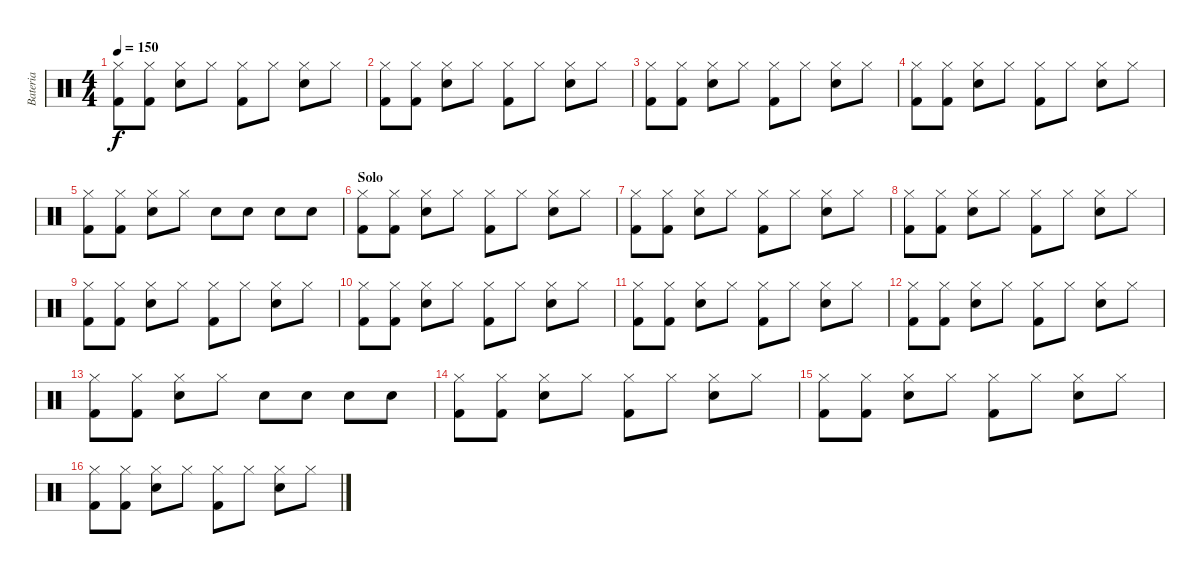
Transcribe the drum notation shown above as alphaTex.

\track ("Bateria" "Bateria") {instrument percussion}
\staff {score}
\articulation defaults
\ts (4 4)
\tempo 150
\clef neutral
\ks c
("Hi-Hat (closed)" "Kick (hit) 2").8{dy f} ("Hi-Hat (closed)" "Kick (hit) 2").8 ("Hi-Hat (closed)" "Snare (hit) 2").8 "Hi-Hat (closed)".8 ("Hi-Hat (closed)" "Kick (hit) 2").8 "Hi-Hat (closed)".8 ("Hi-Hat (closed)" "Snare (hit) 2").8 "Hi-Hat (closed)".8 |
("Hi-Hat (closed)" "Kick (hit) 2").8 ("Hi-Hat (closed)" "Kick (hit) 2").8 ("Hi-Hat (closed)" "Snare (hit) 2").8 "Hi-Hat (closed)".8 ("Hi-Hat (closed)" "Kick (hit) 2").8 "Hi-Hat (closed)".8 ("Hi-Hat (closed)" "Snare (hit) 2").8 "Hi-Hat (closed)".8 |
("Hi-Hat (closed)" "Kick (hit) 2").8 ("Hi-Hat (closed)" "Kick (hit) 2").8 ("Hi-Hat (closed)" "Snare (hit) 2").8 "Hi-Hat (closed)".8 ("Hi-Hat (closed)" "Kick (hit) 2").8 "Hi-Hat (closed)".8 ("Hi-Hat (closed)" "Snare (hit) 2").8 "Hi-Hat (closed)".8 |
("Hi-Hat (closed)" "Kick (hit) 2").8 ("Hi-Hat (closed)" "Kick (hit) 2").8 ("Hi-Hat (closed)" "Snare (hit) 2").8 "Hi-Hat (closed)".8 ("Hi-Hat (closed)" "Kick (hit) 2").8 "Hi-Hat (closed)".8 ("Hi-Hat (closed)" "Snare (hit) 2").8 "Hi-Hat (closed)".8 |
("Hi-Hat (closed)" "Kick (hit) 2").8 ("Hi-Hat (closed)" "Kick (hit) 2").8 ("Hi-Hat (closed)" "Snare (hit) 2").8 "Hi-Hat (closed)".8 "Snare (hit) 2".8 "Snare (hit) 2".8 "Snare (hit) 2".8 "Snare (hit) 2".8 |
\section ("" "Solo")
("Hi-Hat (closed)" "Kick (hit) 2").8 ("Hi-Hat (closed)" "Kick (hit) 2").8 ("Hi-Hat (closed)" "Snare (hit) 2").8 "Hi-Hat (closed)".8 ("Hi-Hat (closed)" "Kick (hit) 2").8 "Hi-Hat (closed)".8 ("Hi-Hat (closed)" "Snare (hit) 2").8 "Hi-Hat (closed)".8 |
("Hi-Hat (closed)" "Kick (hit) 2").8 ("Hi-Hat (closed)" "Kick (hit) 2").8 ("Hi-Hat (closed)" "Snare (hit) 2").8 "Hi-Hat (closed)".8 ("Hi-Hat (closed)" "Kick (hit) 2").8 "Hi-Hat (closed)".8 ("Hi-Hat (closed)" "Snare (hit) 2").8 "Hi-Hat (closed)".8 |
("Hi-Hat (closed)" "Kick (hit) 2").8 ("Hi-Hat (closed)" "Kick (hit) 2").8 ("Hi-Hat (closed)" "Snare (hit) 2").8 "Hi-Hat (closed)".8 ("Hi-Hat (closed)" "Kick (hit) 2").8 "Hi-Hat (closed)".8 ("Hi-Hat (closed)" "Snare (hit) 2").8 "Hi-Hat (closed)".8 |
("Hi-Hat (closed)" "Kick (hit) 2").8 ("Hi-Hat (closed)" "Kick (hit) 2").8 ("Hi-Hat (closed)" "Snare (hit) 2").8 "Hi-Hat (closed)".8 ("Hi-Hat (closed)" "Kick (hit) 2").8 "Hi-Hat (closed)".8 ("Hi-Hat (closed)" "Snare (hit) 2").8 "Hi-Hat (closed)".8 |
("Hi-Hat (closed)" "Kick (hit) 2").8 ("Hi-Hat (closed)" "Kick (hit) 2").8 ("Hi-Hat (closed)" "Snare (hit) 2").8 "Hi-Hat (closed)".8 ("Hi-Hat (closed)" "Kick (hit) 2").8 "Hi-Hat (closed)".8 ("Hi-Hat (closed)" "Snare (hit) 2").8 "Hi-Hat (closed)".8 |
("Hi-Hat (closed)" "Kick (hit) 2").8 ("Hi-Hat (closed)" "Kick (hit) 2").8 ("Hi-Hat (closed)" "Snare (hit) 2").8 "Hi-Hat (closed)".8 ("Hi-Hat (closed)" "Kick (hit) 2").8 "Hi-Hat (closed)".8 ("Hi-Hat (closed)" "Snare (hit) 2").8 "Hi-Hat (closed)".8 |
("Hi-Hat (closed)" "Kick (hit) 2").8 ("Hi-Hat (closed)" "Kick (hit) 2").8 ("Hi-Hat (closed)" "Snare (hit) 2").8 "Hi-Hat (closed)".8 ("Hi-Hat (closed)" "Kick (hit) 2").8 "Hi-Hat (closed)".8 ("Hi-Hat (closed)" "Snare (hit) 2").8 "Hi-Hat (closed)".8 |
("Hi-Hat (closed)" "Kick (hit) 2").8 ("Hi-Hat (closed)" "Kick (hit) 2").8 ("Hi-Hat (closed)" "Snare (hit) 2").8 "Hi-Hat (closed)".8 "Snare (hit) 2".8 "Snare (hit) 2".8 "Snare (hit) 2".8 "Snare (hit) 2".8 |
("Hi-Hat (closed)" "Kick (hit) 2").8 ("Hi-Hat (closed)" "Kick (hit) 2").8 ("Hi-Hat (closed)" "Snare (hit) 2").8 "Hi-Hat (closed)".8 ("Hi-Hat (closed)" "Kick (hit) 2").8 "Hi-Hat (closed)".8 ("Hi-Hat (closed)" "Snare (hit) 2").8 "Hi-Hat (closed)".8 |
("Hi-Hat (closed)" "Kick (hit) 2").8 ("Hi-Hat (closed)" "Kick (hit) 2").8 ("Hi-Hat (closed)" "Snare (hit) 2").8 "Hi-Hat (closed)".8 ("Hi-Hat (closed)" "Kick (hit) 2").8 "Hi-Hat (closed)".8 ("Hi-Hat (closed)" "Snare (hit) 2").8 "Hi-Hat (closed)".8 |
("Hi-Hat (closed)" "Kick (hit) 2").8 ("Hi-Hat (closed)" "Kick (hit) 2").8 ("Hi-Hat (closed)" "Snare (hit) 2").8 "Hi-Hat (closed)".8 ("Hi-Hat (closed)" "Kick (hit) 2").8 "Hi-Hat (closed)".8 ("Hi-Hat (closed)" "Snare (hit) 2").8 "Hi-Hat (closed)".8
